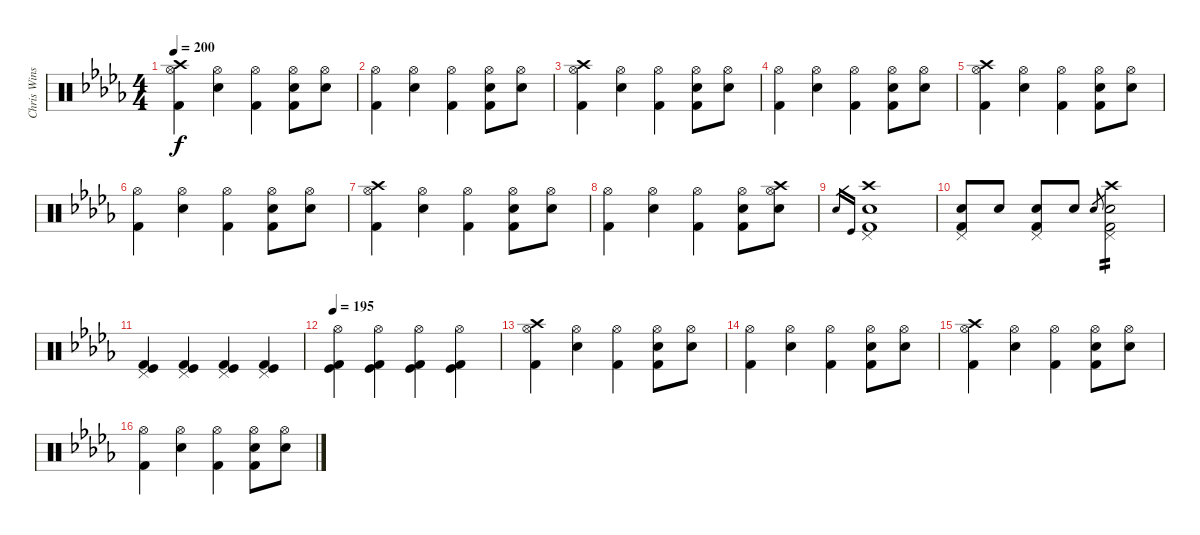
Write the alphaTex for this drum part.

\track ("Chris Winship (Drums)" "Chris Wins") {instrument percussion}
\staff {score}
\articulation defaults
\ts (4 4)
\tempo 200
\clef neutral
\ks bbminor
("Crash high (hit)" "Hi-Hat (open)" "Kick (hit) 2").4{dy f} ("Hi-Hat (open)" "Electric Snare (hit)").4 ("Hi-Hat (open)" "Kick (hit) 2").4 ("Hi-Hat (open)" "Electric Snare (hit)" "Kick (hit) 2").8 ("Hi-Hat (open)" "Electric Snare (hit)").8 |
("Hi-Hat (open)" "Kick (hit) 2").4 ("Hi-Hat (open)" "Electric Snare (hit)").4 ("Hi-Hat (open)" "Kick (hit) 2").4 ("Hi-Hat (open)" "Electric Snare (hit)" "Kick (hit) 2").8 ("Hi-Hat (open)" "Electric Snare (hit)").8 |
("Crash high (hit)" "Hi-Hat (open)" "Kick (hit) 2").4 ("Hi-Hat (open)" "Electric Snare (hit)").4 ("Hi-Hat (open)" "Kick (hit) 2").4 ("Hi-Hat (open)" "Electric Snare (hit)" "Kick (hit) 2").8 ("Hi-Hat (open)" "Electric Snare (hit)").8 |
("Hi-Hat (open)" "Kick (hit) 2").4 ("Hi-Hat (open)" "Electric Snare (hit)").4 ("Hi-Hat (open)" "Kick (hit) 2").4 ("Hi-Hat (open)" "Electric Snare (hit)" "Kick (hit) 2").8 ("Hi-Hat (open)" "Electric Snare (hit)").8 |
("Crash high (hit)" "Hi-Hat (open)" "Kick (hit) 2").4 ("Hi-Hat (open)" "Electric Snare (hit)").4 ("Hi-Hat (open)" "Kick (hit) 2").4 ("Hi-Hat (open)" "Electric Snare (hit)" "Kick (hit) 2").8 ("Hi-Hat (open)" "Electric Snare (hit)").8 |
("Hi-Hat (open)" "Kick (hit) 2").4 ("Hi-Hat (open)" "Electric Snare (hit)").4 ("Hi-Hat (open)" "Kick (hit) 2").4 ("Hi-Hat (open)" "Electric Snare (hit)" "Kick (hit) 2").8 ("Hi-Hat (open)" "Electric Snare (hit)").8 |
("Crash high (hit)" "Hi-Hat (open)" "Kick (hit) 2").4 ("Hi-Hat (open)" "Electric Snare (hit)").4 ("Hi-Hat (open)" "Kick (hit) 2").4 ("Hi-Hat (open)" "Electric Snare (hit)" "Kick (hit) 2").8 ("Hi-Hat (open)" "Electric Snare (hit)").8 |
("Hi-Hat (open)" "Kick (hit) 2").4 ("Hi-Hat (open)" "Electric Snare (hit)").4 ("Hi-Hat (open)" "Kick (hit) 2").4 ("Hi-Hat (open)" "Electric Snare (hit)" "Kick (hit) 2").8 ("Crash high (hit)" "Hi-Hat (open)" "Electric Snare (hit)").8 |
"Snare (hit) 2".16{gr} "Kick (hit)".16{gr} ("Crash high (hit)" "Electric Snare (hit)" "Kick (hit) 2" "Pedal Hi-Hat (hit)").1 |
("Electric Snare (hit)" "Kick (hit) 2" "Pedal Hi-Hat (hit)").8 "Electric Snare (hit)".8 ("Electric Snare (hit)" "Kick (hit) 2" "Pedal Hi-Hat (hit)").8 "Electric Snare (hit)".8 "Snare (hit) 2".8{gr} ("Electric Snare (hit)" "Kick (hit) 2" "Pedal Hi-Hat (hit)" "Crash high (hit)").2{tp 2} |
("Pedal Hi-Hat (hit)" "Kick (hit) 2" "Kick (hit)").4 ("Pedal Hi-Hat (hit)" "Kick (hit) 2" "Kick (hit)").4 ("Pedal Hi-Hat (hit)" "Kick (hit)" "Kick (hit) 2").4 ("Pedal Hi-Hat (hit)" "Kick (hit) 2" "Kick (hit)").4 |
\tempo 195
("Hi-Hat (open)" "Kick (hit) 2" "Kick (hit)").4 ("Hi-Hat (open)" "Kick (hit) 2" "Kick (hit)").4 ("Hi-Hat (open)" "Kick (hit) 2" "Kick (hit)").4 ("Hi-Hat (open)" "Kick (hit) 2" "Kick (hit)").4 |
("Crash high (hit)" "Hi-Hat (open)" "Kick (hit) 2").4 ("Hi-Hat (open)" "Electric Snare (hit)").4 ("Hi-Hat (open)" "Kick (hit) 2").4 ("Hi-Hat (open)" "Electric Snare (hit)" "Kick (hit) 2").8 ("Hi-Hat (open)" "Electric Snare (hit)").8 |
("Hi-Hat (open)" "Kick (hit) 2").4 ("Hi-Hat (open)" "Electric Snare (hit)").4 ("Hi-Hat (open)" "Kick (hit) 2").4 ("Hi-Hat (open)" "Electric Snare (hit)" "Kick (hit) 2").8 ("Hi-Hat (open)" "Electric Snare (hit)").8 |
("Crash high (hit)" "Hi-Hat (open)" "Kick (hit) 2").4 ("Hi-Hat (open)" "Electric Snare (hit)").4 ("Hi-Hat (open)" "Kick (hit) 2").4 ("Hi-Hat (open)" "Electric Snare (hit)" "Kick (hit) 2").8 ("Hi-Hat (open)" "Electric Snare (hit)").8 |
("Hi-Hat (open)" "Kick (hit) 2").4 ("Hi-Hat (open)" "Electric Snare (hit)").4 ("Hi-Hat (open)" "Kick (hit) 2").4 ("Hi-Hat (open)" "Electric Snare (hit)" "Kick (hit) 2").8 ("Hi-Hat (open)" "Electric Snare (hit)").8
